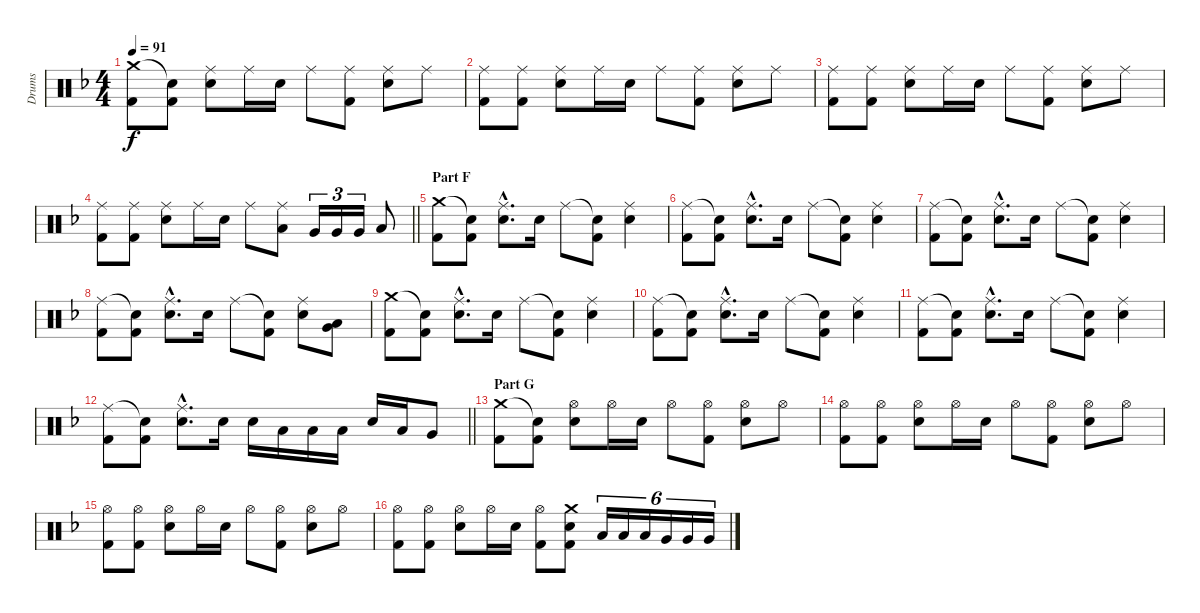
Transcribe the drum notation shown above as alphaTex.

\track ("Drums" "Drums") {instrument percussion}
\staff {score}
\articulation defaults
\ts (4 4)
\tempo 91
\clef neutral
\ks f
("Crash medium (hit)" "Kick (hit) 2").8{dy f} ("Snare (hit)"{t} "Kick (hit) 2").8 ("Ride (middle)" "Electric Snare (hit)").8 "Ride (middle)".16 "Electric Snare (hit)".16 "Ride (middle)".8 ("Ride (middle)" "Kick (hit) 2").8 ("Ride (middle)" "Electric Snare (hit)").8 "Ride (middle)".8 |
("Ride (middle)" "Kick (hit) 2").8 ("Ride (middle)" "Kick (hit) 2").8 ("Ride (middle)" "Electric Snare (hit)").8 "Ride (middle)".16 "Electric Snare (hit)".16 "Ride (middle)".8 ("Ride (middle)" "Kick (hit) 2").8 ("Ride (middle)" "Electric Snare (hit)").8 "Ride (middle)".8 |
("Ride (middle)" "Kick (hit) 2").8 ("Ride (middle)" "Kick (hit) 2").8 ("Ride (middle)" "Electric Snare (hit)").8 "Ride (middle)".16 "Electric Snare (hit)".16 "Ride (middle)".8 ("Ride (middle)" "Kick (hit) 2").8 ("Ride (middle)" "Electric Snare (hit)").8 "Ride (middle)".8 |
\barLineRight lightlight
("Ride (middle)" "Kick (hit) 2").8 ("Ride (middle)" "Kick (hit) 2").8 ("Ride (middle)" "Electric Snare (hit)").8 "Ride (middle)".16 "Electric Snare (hit)".16 "Ride (middle)".8 ("Ride (middle)" "Low Tom (hit)").8 "Very Low Tom (hit)".16{tu (3 2)} "Very Low Tom (hit)".16{tu (3 2)} "Very Low Tom (hit)".16{tu (3 2)} "Low Floor Tom (hit)".8 |
\section ("" "Part F")
("Crash medium (hit)" "Kick (hit) 2").8 ("Snare (hit)"{t} "Kick (hit) 2").8 ("Ride (middle)"{hac} "Electric Snare (hit)"{hac}).8{d} "Electric Snare (hit)".16 "Ride (middle)".8 ("Snare (hit)"{t} "Kick (hit) 2").8 ("Ride (middle)" "Electric Snare (hit)").4 |
("Ride (middle)" "Kick (hit) 2").8 ("Snare (hit)"{t} "Kick (hit) 2").8 ("Ride (middle)"{hac} "Electric Snare (hit)"{hac}).8{d} "Electric Snare (hit)".16 "Ride (middle)".8 ("Snare (hit)"{t} "Kick (hit) 2").8 ("Ride (middle)" "Electric Snare (hit)").4 |
("Ride (middle)" "Kick (hit) 2").8 ("Snare (hit)"{t} "Kick (hit) 2").8 ("Ride (middle)"{hac} "Electric Snare (hit)"{hac}).8{d} "Electric Snare (hit)".16 "Ride (middle)".8 ("Snare (hit)"{t} "Kick (hit) 2").8 ("Ride (middle)" "Electric Snare (hit)").4 |
("Ride (middle)" "Kick (hit) 2").8 ("Snare (hit)"{t} "Kick (hit) 2").8 ("Ride (middle)"{hac} "Electric Snare (hit)"{hac}).8{d} "Electric Snare (hit)".16 "Ride (middle)".8 ("Snare (hit)"{t} "Kick (hit) 2").8 ("Ride (middle)" "Electric Snare (hit)").8 ("Very Low Tom (hit)" "Low Floor Tom (hit)").8 |
("Crash medium (hit)" "Kick (hit) 2").8 ("Snare (hit)"{t} "Kick (hit) 2").8 ("Ride (middle)"{hac} "Electric Snare (hit)"{hac}).8{d} "Electric Snare (hit)".16 "Ride (middle)".8 ("Snare (hit)"{t} "Kick (hit) 2").8 ("Ride (middle)" "Electric Snare (hit)").4 |
("Ride (middle)" "Kick (hit) 2").8 ("Snare (hit)"{t} "Kick (hit) 2").8 ("Ride (middle)"{hac} "Electric Snare (hit)"{hac}).8{d} "Electric Snare (hit)".16 "Ride (middle)".8 ("Snare (hit)"{t} "Kick (hit) 2").8 ("Ride (middle)" "Electric Snare (hit)").4 |
("Ride (middle)" "Kick (hit) 2").8 ("Snare (hit)"{t} "Kick (hit) 2").8 ("Ride (middle)"{hac} "Electric Snare (hit)"{hac}).8{d} "Electric Snare (hit)".16 "Ride (middle)".8 ("Snare (hit)"{t} "Kick (hit) 2").8 ("Ride (middle)" "Electric Snare (hit)").4 |
\barLineRight lightlight
("Ride (middle)" "Kick (hit) 2").8 ("Snare (hit)"{t} "Kick (hit) 2").8 ("Ride (middle)"{hac} "Electric Snare (hit)"{hac}).8{d} "Electric Snare (hit)".16 "Electric Snare (hit)".16 "Low Tom (hit)".16 "Low Tom (hit)".16 "Low Tom (hit)".16 "Electric Snare (hit)".16 "Low Tom (hit)".16 "Very Low Tom (hit)".8 |
\section ("" "Part G")
("Crash medium (hit)" "Kick (hit) 2").8 ("Snare (hit)"{t} "Kick (hit) 2").8 ("Hi-Hat (open)" "Electric Snare (hit)").8 "Hi-Hat (open)".16 "Electric Snare (hit)".16 "Hi-Hat (open)".8 ("Hi-Hat (open)" "Kick (hit) 2").8 ("Hi-Hat (open)" "Electric Snare (hit)").8 "Hi-Hat (open)".8 |
("Hi-Hat (open)" "Kick (hit) 2").8 ("Hi-Hat (open)" "Kick (hit) 2").8 ("Hi-Hat (open)" "Electric Snare (hit)").8 "Hi-Hat (open)".16 "Electric Snare (hit)".16 "Hi-Hat (open)".8 ("Hi-Hat (open)" "Kick (hit) 2").8 ("Hi-Hat (open)" "Electric Snare (hit)").8 "Hi-Hat (open)".8 |
("Hi-Hat (open)" "Kick (hit) 2").8 ("Hi-Hat (open)" "Kick (hit) 2").8 ("Hi-Hat (open)" "Electric Snare (hit)").8 "Hi-Hat (open)".16 "Electric Snare (hit)".16 "Hi-Hat (open)".8 ("Hi-Hat (open)" "Kick (hit) 2").8 ("Hi-Hat (open)" "Electric Snare (hit)").8 "Hi-Hat (open)".8 |
("Hi-Hat (open)" "Kick (hit) 2").8 ("Hi-Hat (open)" "Kick (hit) 2").8 ("Hi-Hat (open)" "Electric Snare (hit)").8 "Hi-Hat (open)".16 "Electric Snare (hit)".16 ("Hi-Hat (open)" "Kick (hit) 2").8 ("Crash medium (hit)" "Electric Snare (hit)" "Kick (hit) 2").8 "Low Tom (hit)".16{tu (6 4)} "Low Tom (hit)".16{tu (6 4)} "Low Tom (hit)".16{tu (6 4)} "Very Low Tom (hit)".16{tu (6 4)} "Very Low Tom (hit)".16{tu (6 4)} "Very Low Tom (hit)".16{tu (6 4)}
